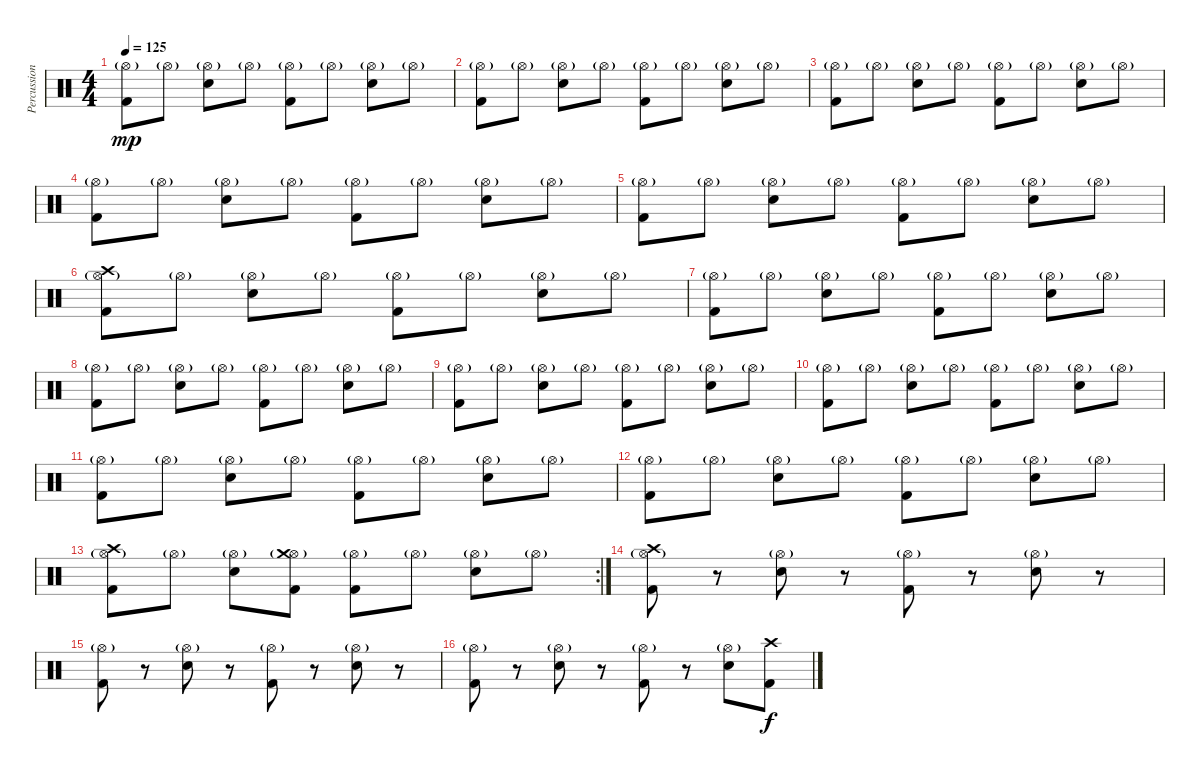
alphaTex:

\track ("Percussions" "Percussion") {instrument percussion}
\staff {score}
\articulation defaults
\ts (4 4)
\tempo 125
\clef neutral
\ks c
("Hi-Hat (open)"{g} "Kick (hit) 2").8{dy mp} "Hi-Hat (open)"{g}.8 ("Hi-Hat (open)"{g} "Snare (hit) 2").8 "Hi-Hat (open)"{g}.8 ("Hi-Hat (open)"{g} "Kick (hit) 2").8 "Hi-Hat (open)"{g}.8 ("Hi-Hat (open)"{g} "Snare (hit) 2").8 "Hi-Hat (open)"{g}.8 |
("Hi-Hat (open)"{g} "Kick (hit) 2").8 "Hi-Hat (open)"{g}.8 ("Hi-Hat (open)"{g} "Snare (hit) 2").8 "Hi-Hat (open)"{g}.8 ("Hi-Hat (open)"{g} "Kick (hit) 2").8 "Hi-Hat (open)"{g}.8 ("Hi-Hat (open)"{g} "Snare (hit) 2").8 "Hi-Hat (open)"{g}.8 |
("Hi-Hat (open)"{g} "Kick (hit) 2").8 "Hi-Hat (open)"{g}.8 ("Hi-Hat (open)"{g} "Snare (hit) 2").8 "Hi-Hat (open)"{g}.8 ("Hi-Hat (open)"{g} "Kick (hit) 2").8 "Hi-Hat (open)"{g}.8 ("Hi-Hat (open)"{g} "Snare (hit) 2").8 "Hi-Hat (open)"{g}.8 |
("Hi-Hat (open)"{g} "Kick (hit) 2").8 "Hi-Hat (open)"{g}.8 ("Hi-Hat (open)"{g} "Snare (hit) 2").8 "Hi-Hat (open)"{g}.8 ("Hi-Hat (open)"{g} "Kick (hit) 2").8 "Hi-Hat (open)"{g}.8 ("Hi-Hat (open)"{g} "Snare (hit) 2").8 "Hi-Hat (open)"{g}.8 |
("Hi-Hat (open)"{g} "Kick (hit) 2").8 "Hi-Hat (open)"{g}.8 ("Hi-Hat (open)"{g} "Snare (hit) 2").8 "Hi-Hat (open)"{g}.8 ("Hi-Hat (open)"{g} "Kick (hit) 2").8 "Hi-Hat (open)"{g}.8 ("Hi-Hat (open)"{g} "Snare (hit) 2").8 "Hi-Hat (open)"{g}.8 |
("Hi-Hat (open)"{g} "Crash high (hit)" "Kick (hit) 2").8 "Hi-Hat (open)"{g}.8 ("Hi-Hat (open)"{g} "Snare (hit) 2").8 "Hi-Hat (open)"{g}.8 ("Hi-Hat (open)"{g} "Kick (hit) 2").8 "Hi-Hat (open)"{g}.8 ("Hi-Hat (open)"{g} "Snare (hit) 2").8 "Hi-Hat (open)"{g}.8 |
("Hi-Hat (open)"{g} "Kick (hit) 2").8 "Hi-Hat (open)"{g}.8 ("Hi-Hat (open)"{g} "Snare (hit) 2").8 "Hi-Hat (open)"{g}.8 ("Hi-Hat (open)"{g} "Kick (hit) 2").8 "Hi-Hat (open)"{g}.8 ("Hi-Hat (open)"{g} "Snare (hit) 2").8 "Hi-Hat (open)"{g}.8 |
("Hi-Hat (open)"{g} "Kick (hit) 2").8 "Hi-Hat (open)"{g}.8 ("Hi-Hat (open)"{g} "Snare (hit) 2").8 "Hi-Hat (open)"{g}.8 ("Hi-Hat (open)"{g} "Kick (hit) 2").8 "Hi-Hat (open)"{g}.8 ("Hi-Hat (open)"{g} "Snare (hit) 2").8 "Hi-Hat (open)"{g}.8 |
("Hi-Hat (open)"{g} "Kick (hit) 2").8 "Hi-Hat (open)"{g}.8 ("Hi-Hat (open)"{g} "Snare (hit) 2").8 "Hi-Hat (open)"{g}.8 ("Hi-Hat (open)"{g} "Kick (hit) 2").8 "Hi-Hat (open)"{g}.8 ("Hi-Hat (open)"{g} "Snare (hit) 2").8 "Hi-Hat (open)"{g}.8 |
("Hi-Hat (open)"{g} "Kick (hit) 2").8 "Hi-Hat (open)"{g}.8 ("Hi-Hat (open)"{g} "Snare (hit) 2").8 "Hi-Hat (open)"{g}.8 ("Hi-Hat (open)"{g} "Kick (hit) 2").8 "Hi-Hat (open)"{g}.8 ("Hi-Hat (open)"{g} "Snare (hit) 2").8 "Hi-Hat (open)"{g}.8 |
("Hi-Hat (open)"{g} "Kick (hit) 2").8 "Hi-Hat (open)"{g}.8 ("Hi-Hat (open)"{g} "Snare (hit) 2").8 "Hi-Hat (open)"{g}.8 ("Hi-Hat (open)"{g} "Kick (hit) 2").8 "Hi-Hat (open)"{g}.8 ("Hi-Hat (open)"{g} "Snare (hit) 2").8 "Hi-Hat (open)"{g}.8 |
("Hi-Hat (open)"{g} "Kick (hit) 2").8 "Hi-Hat (open)"{g}.8 ("Hi-Hat (open)"{g} "Snare (hit) 2").8 "Hi-Hat (open)"{g}.8 ("Hi-Hat (open)"{g} "Kick (hit) 2").8 "Hi-Hat (open)"{g}.8 ("Hi-Hat (open)"{g} "Snare (hit) 2").8 "Hi-Hat (open)"{g}.8 |
\rc 2
("Hi-Hat (open)"{g} "Crash high (hit)" "Kick (hit) 2").8 "Hi-Hat (open)"{g}.8 ("Hi-Hat (open)"{g} "Snare (hit) 2").8 ("Hi-Hat (open)"{g} "Crash medium (hit)" "Kick (hit) 2").8 ("Hi-Hat (open)"{g} "Kick (hit) 2").8 "Hi-Hat (open)"{g}.8 ("Hi-Hat (open)"{g} "Snare (hit) 2").8 "Hi-Hat (open)"{g}.8 |
("Hi-Hat (open)"{g} "Crash high (hit)" "Kick (hit) 2").8 r.8 ("Hi-Hat (open)"{g} "Snare (hit) 2").8 r.8 ("Hi-Hat (open)"{g} "Kick (hit) 2").8 r.8 ("Hi-Hat (open)"{g} "Snare (hit) 2").8 r.8 |
("Hi-Hat (open)"{g} "Kick (hit) 2").8 r.8 ("Hi-Hat (open)"{g} "Snare (hit) 2").8 r.8 ("Hi-Hat (open)"{g} "Kick (hit) 2").8 r.8 ("Hi-Hat (open)"{g} "Snare (hit) 2").8 r.8 |
("Hi-Hat (open)"{g} "Kick (hit) 2").8 r.8 ("Hi-Hat (open)"{g} "Snare (hit) 2").8 r.8 ("Hi-Hat (open)"{g} "Kick (hit) 2").8 r.8 ("Hi-Hat (open)"{g} "Snare (hit) 2").8 ("Crash high (hit)" "Kick (hit) 2").8{dy f}
